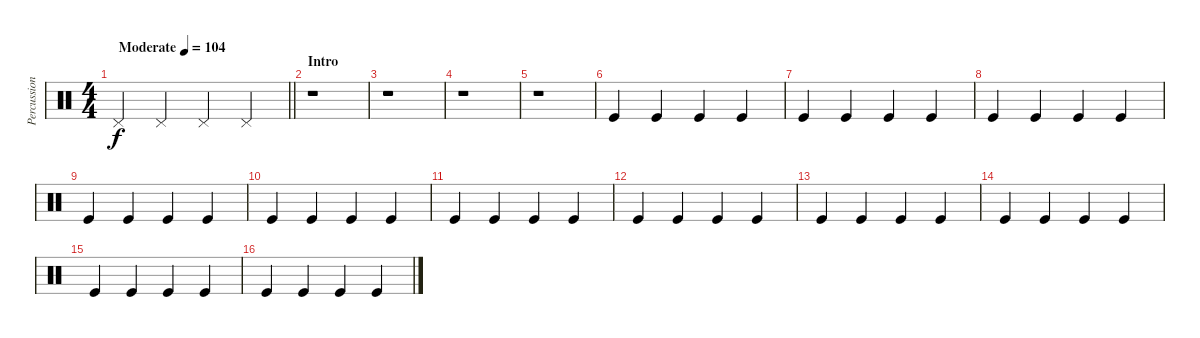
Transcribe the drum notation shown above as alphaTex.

\track ("Percussioni" "Percussion") {instrument percussion}
\staff {score}
\articulation defaults
\ts (4 4)
\tempo (104 "Moderate")
\clef neutral
\barLineRight lightlight
\ks c "Pedal Hi-Hat (hit)".4{dy f} "Pedal Hi-Hat (hit)".4 "Pedal Hi-Hat (hit)".4 "Pedal Hi-Hat (hit)".4
|
\section ("" "Intro ")
r.1 |
r.1 |
r.1 |
r.1 |
"Kick (hit)".4 "Kick (hit)".4 "Kick (hit)".4 "Kick (hit)".4 |
"Kick (hit)".4 "Kick (hit)".4 "Kick (hit)".4 "Kick (hit)".4 |
"Kick (hit)".4 "Kick (hit)".4 "Kick (hit)".4 "Kick (hit)".4 |
"Kick (hit)".4 "Kick (hit)".4 "Kick (hit)".4 "Kick (hit)".4 |
"Kick (hit)".4 "Kick (hit)".4 "Kick (hit)".4 "Kick (hit)".4 |
"Kick (hit)".4 "Kick (hit)".4 "Kick (hit)".4 "Kick (hit)".4 |
"Kick (hit)".4 "Kick (hit)".4 "Kick (hit)".4 "Kick (hit)".4 |
"Kick (hit)".4 "Kick (hit)".4 "Kick (hit)".4 "Kick (hit)".4 |
"Kick (hit)".4 "Kick (hit)".4 "Kick (hit)".4 "Kick (hit)".4 |
"Kick (hit)".4 "Kick (hit)".4 "Kick (hit)".4 "Kick (hit)".4 |
"Kick (hit)".4 "Kick (hit)".4 "Kick (hit)".4 "Kick (hit)".4
